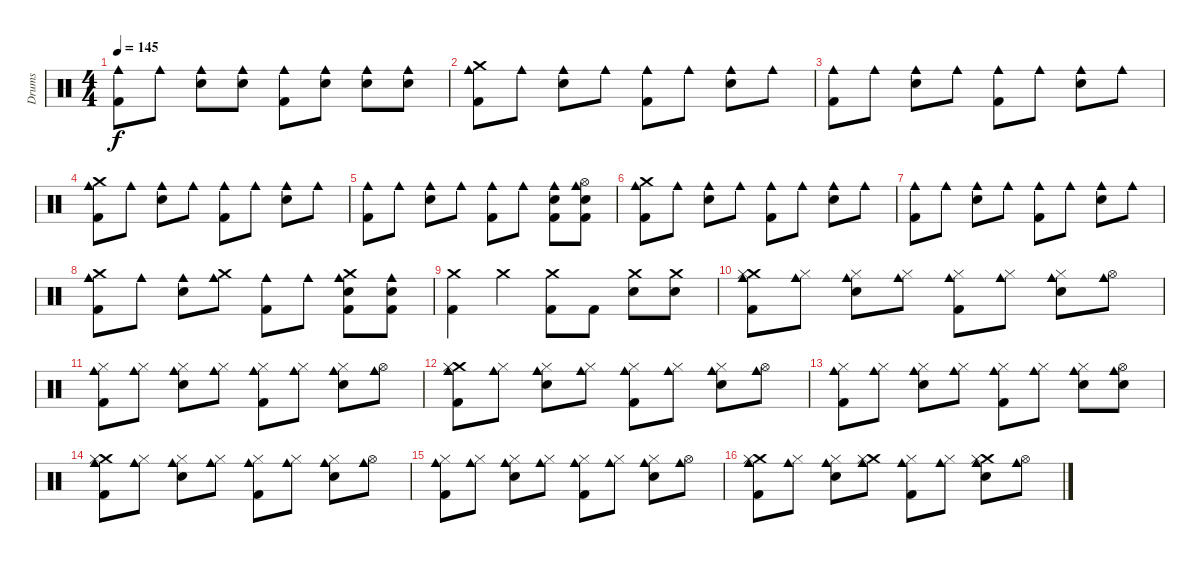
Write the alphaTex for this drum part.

\track ("Drums" "Drums") {instrument percussion}
\staff {score}
\articulation defaults
\ts (4 4)
\tempo 145
\clef neutral
\ks c
("Cowbell medium (hit)" "Kick (hit) 2").8{dy f} "Cowbell medium (hit)".8 ("Cowbell medium (hit)" "Electric Snare (hit)").8 ("Cowbell medium (hit)" "Electric Snare (hit)").8 ("Cowbell medium (hit)" "Kick (hit) 2").8 ("Cowbell medium (hit)" "Electric Snare (hit)").8 ("Cowbell medium (hit)" "Electric Snare (hit)").8 ("Cowbell medium (hit)" "Electric Snare (hit)").8 |
("Crash medium (hit)" "Cowbell medium (hit)" "Kick (hit) 2").8 "Cowbell medium (hit)".8 ("Cowbell medium (hit)" "Electric Snare (hit)").8 "Cowbell medium (hit)".8 ("Cowbell medium (hit)" "Kick (hit) 2").8 "Cowbell medium (hit)".8 ("Cowbell medium (hit)" "Electric Snare (hit)").8 "Cowbell medium (hit)".8 |
("Cowbell medium (hit)" "Kick (hit) 2").8 "Cowbell medium (hit)".8 ("Cowbell medium (hit)" "Electric Snare (hit)").8 "Cowbell medium (hit)".8 ("Cowbell medium (hit)" "Kick (hit) 2").8 "Cowbell medium (hit)".8 ("Cowbell medium (hit)" "Electric Snare (hit)").8 "Cowbell medium (hit)".8 |
("Crash medium (hit)" "Cowbell medium (hit)" "Kick (hit) 2").8 "Cowbell medium (hit)".8 ("Cowbell medium (hit)" "Electric Snare (hit)").8 "Cowbell medium (hit)".8 ("Cowbell medium (hit)" "Kick (hit) 2").8 "Cowbell medium (hit)".8 ("Cowbell medium (hit)" "Electric Snare (hit)").8 "Cowbell medium (hit)".8 |
("Cowbell medium (hit)" "Kick (hit) 2").8 "Cowbell medium (hit)".8 ("Cowbell medium (hit)" "Electric Snare (hit)").8 "Cowbell medium (hit)".8 ("Cowbell medium (hit)" "Kick (hit) 2").8 "Cowbell medium (hit)".8 ("Cowbell medium (hit)" "Electric Snare (hit)" "Kick (hit) 2").8 ("Hi-Hat (open)" "Cowbell medium (hit)" "Electric Snare (hit)" "Kick (hit) 2").8 |
("Crash medium (hit)" "Cowbell medium (hit)" "Kick (hit) 2").8 "Cowbell medium (hit)".8 ("Cowbell medium (hit)" "Electric Snare (hit)").8 "Cowbell medium (hit)".8 ("Cowbell medium (hit)" "Kick (hit) 2").8 "Cowbell medium (hit)".8 ("Cowbell medium (hit)" "Electric Snare (hit)").8 "Cowbell medium (hit)".8 |
("Cowbell medium (hit)" "Kick (hit) 2").8 "Cowbell medium (hit)".8 ("Cowbell medium (hit)" "Electric Snare (hit)").8 "Cowbell medium (hit)".8 ("Cowbell medium (hit)" "Kick (hit) 2").8 "Cowbell medium (hit)".8 ("Cowbell medium (hit)" "Electric Snare (hit)").8 "Cowbell medium (hit)".8 |
("Crash medium (hit)" "Cowbell medium (hit)" "Kick (hit) 2").8 "Cowbell medium (hit)".8 ("Cowbell medium (hit)" "Electric Snare (hit)").8 ("Crash medium (hit)" "Cowbell medium (hit)").8 ("Cowbell medium (hit)" "Kick (hit) 2").8 "Cowbell medium (hit)".8 ("Crash medium (hit)" "Cowbell medium (hit)" "Electric Snare (hit)" "Kick (hit) 2").8 ("Cowbell medium (hit)" "Electric Snare (hit)" "Kick (hit) 2").8 |
("Crash medium (hit)" "Kick (hit) 2").4 "Crash medium (hit)".4 ("Crash medium (hit)" "Kick (hit) 2").8 "Kick (hit) 2".8 ("Crash medium (hit)" "Electric Snare (hit)").8 ("Crash medium (hit)" "Electric Snare (hit)").8 |
("Crash medium (hit)" "Cowbell medium (hit)" "Hi-Hat (closed)" "Kick (hit) 2").8 ("Cowbell medium (hit)" "Hi-Hat (closed)").8 ("Cowbell medium (hit)" "Hi-Hat (closed)" "Electric Snare (hit)").8 ("Cowbell medium (hit)" "Hi-Hat (closed)").8 ("Cowbell medium (hit)" "Hi-Hat (closed)" "Kick (hit) 2").8 ("Cowbell medium (hit)" "Hi-Hat (closed)").8 ("Cowbell medium (hit)" "Hi-Hat (closed)" "Electric Snare (hit)").8 ("Cowbell medium (hit)" "Hi-Hat (open)").8 |
("Cowbell medium (hit)" "Hi-Hat (closed)" "Kick (hit) 2").8 ("Cowbell medium (hit)" "Hi-Hat (closed)").8 ("Cowbell medium (hit)" "Hi-Hat (closed)" "Electric Snare (hit)").8 ("Cowbell medium (hit)" "Hi-Hat (closed)").8 ("Cowbell medium (hit)" "Hi-Hat (closed)" "Kick (hit) 2").8 ("Cowbell medium (hit)" "Hi-Hat (closed)").8 ("Cowbell medium (hit)" "Hi-Hat (closed)" "Electric Snare (hit)").8 ("Cowbell medium (hit)" "Hi-Hat (open)").8 |
("Crash medium (hit)" "Cowbell medium (hit)" "Hi-Hat (closed)" "Kick (hit) 2").8 ("Cowbell medium (hit)" "Hi-Hat (closed)").8 ("Cowbell medium (hit)" "Hi-Hat (closed)" "Electric Snare (hit)").8 ("Cowbell medium (hit)" "Hi-Hat (closed)").8 ("Cowbell medium (hit)" "Hi-Hat (closed)" "Kick (hit) 2").8 ("Cowbell medium (hit)" "Hi-Hat (closed)").8 ("Cowbell medium (hit)" "Hi-Hat (closed)" "Electric Snare (hit)").8 ("Cowbell medium (hit)" "Hi-Hat (open)").8 |
("Cowbell medium (hit)" "Hi-Hat (closed)" "Kick (hit) 2").8 ("Cowbell medium (hit)" "Hi-Hat (closed)").8 ("Cowbell medium (hit)" "Hi-Hat (closed)" "Electric Snare (hit)").8 ("Cowbell medium (hit)" "Hi-Hat (closed)").8 ("Cowbell medium (hit)" "Hi-Hat (closed)" "Kick (hit) 2").8 ("Cowbell medium (hit)" "Hi-Hat (closed)").8 ("Cowbell medium (hit)" "Hi-Hat (closed)" "Electric Snare (hit)").8 ("Cowbell medium (hit)" "Hi-Hat (open)" "Electric Snare (hit)").8 |
("Crash medium (hit)" "Cowbell medium (hit)" "Hi-Hat (closed)" "Kick (hit) 2").8 ("Cowbell medium (hit)" "Hi-Hat (closed)").8 ("Cowbell medium (hit)" "Hi-Hat (closed)" "Electric Snare (hit)").8 ("Cowbell medium (hit)" "Hi-Hat (closed)").8 ("Cowbell medium (hit)" "Hi-Hat (closed)" "Kick (hit) 2").8 ("Cowbell medium (hit)" "Hi-Hat (closed)").8 ("Cowbell medium (hit)" "Hi-Hat (closed)" "Electric Snare (hit)").8 ("Cowbell medium (hit)" "Hi-Hat (open)").8 |
("Cowbell medium (hit)" "Hi-Hat (closed)" "Kick (hit) 2").8 ("Cowbell medium (hit)" "Hi-Hat (closed)").8 ("Cowbell medium (hit)" "Hi-Hat (closed)" "Electric Snare (hit)").8 ("Cowbell medium (hit)" "Hi-Hat (closed)").8 ("Cowbell medium (hit)" "Hi-Hat (closed)" "Kick (hit) 2").8 ("Cowbell medium (hit)" "Hi-Hat (closed)").8 ("Cowbell medium (hit)" "Hi-Hat (closed)" "Electric Snare (hit)").8 ("Cowbell medium (hit)" "Hi-Hat (open)").8 |
("Crash medium (hit)" "Cowbell medium (hit)" "Hi-Hat (closed)" "Kick (hit) 2").8 ("Cowbell medium (hit)" "Hi-Hat (closed)").8 ("Cowbell medium (hit)" "Hi-Hat (closed)" "Electric Snare (hit)").8 ("Crash medium (hit)" "Cowbell medium (hit)" "Hi-Hat (closed)").8 ("Cowbell medium (hit)" "Hi-Hat (closed)" "Kick (hit) 2").8 ("Cowbell medium (hit)" "Hi-Hat (closed)").8 ("Crash medium (hit)" "Cowbell medium (hit)" "Hi-Hat (closed)" "Electric Snare (hit)").8 ("Cowbell medium (hit)" "Hi-Hat (open)").8
